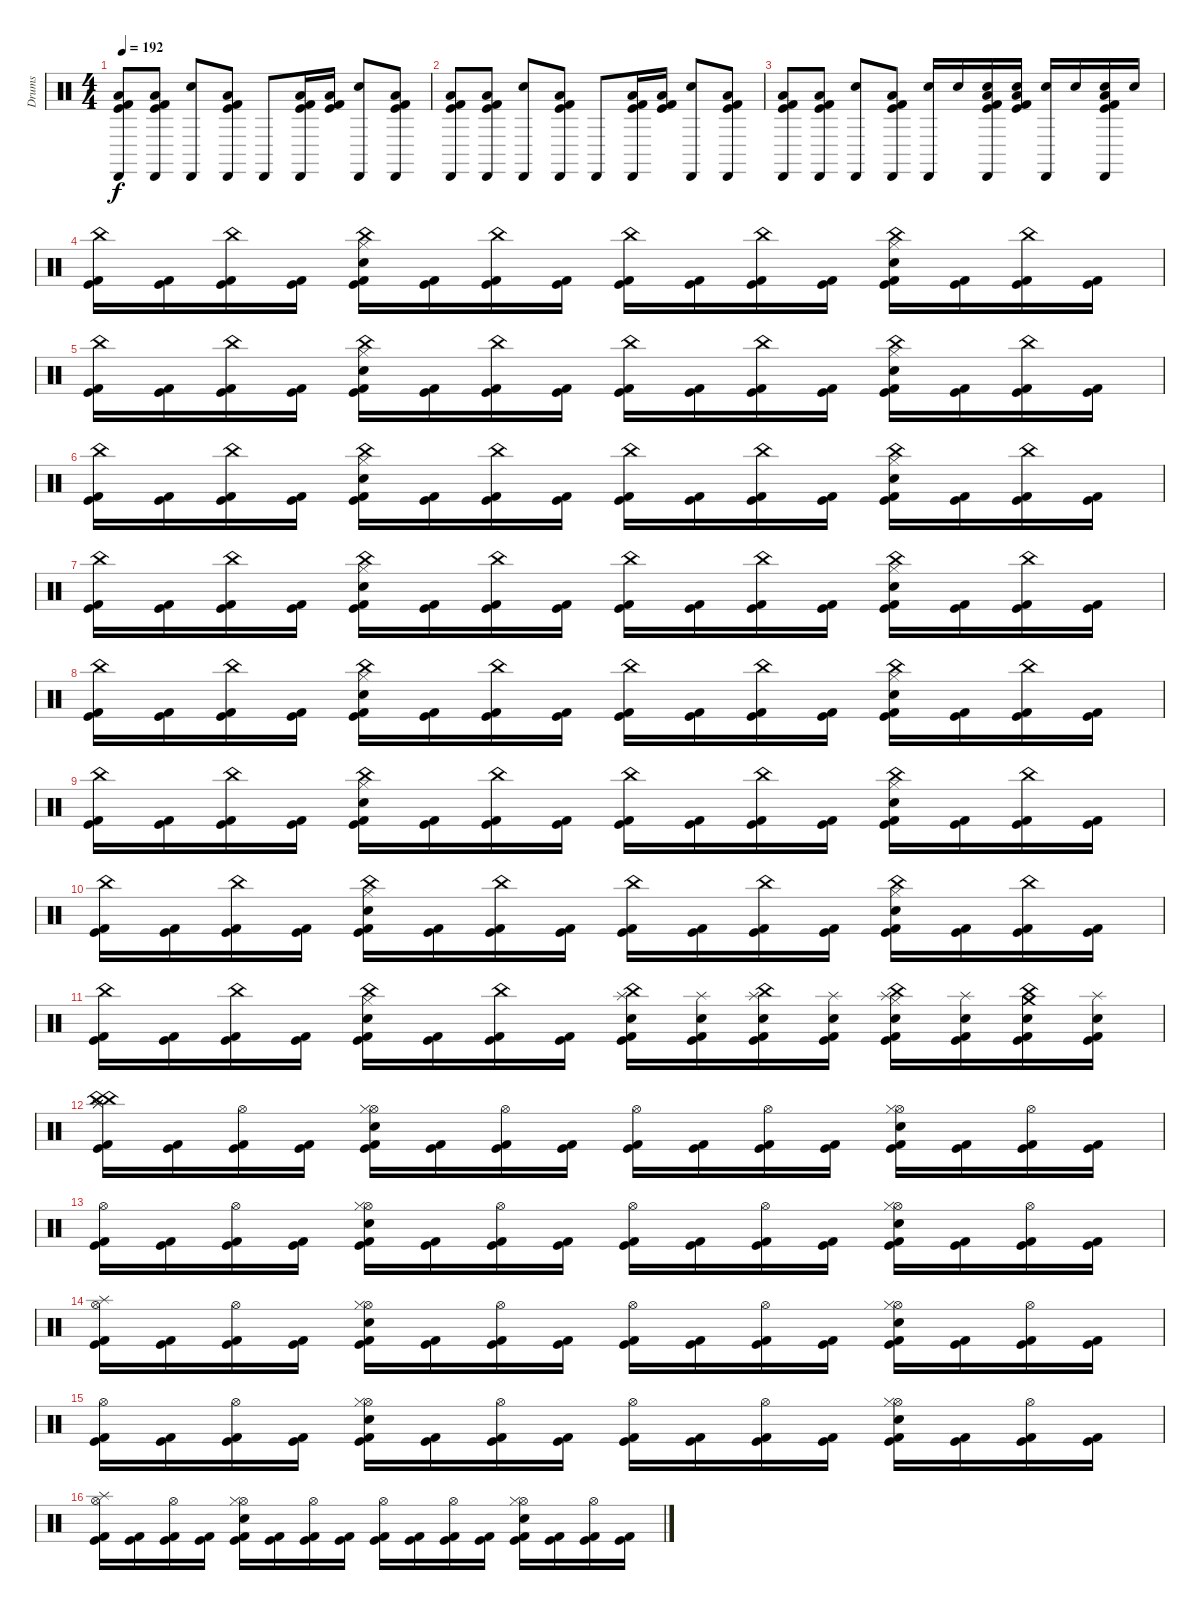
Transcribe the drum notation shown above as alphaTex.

\track ("Drums" "Drums") {instrument percussion}
\staff {score}
\articulation defaults
\ts (4 4)
\tempo 192
\clef neutral
\ks c
("Kick (hit)" "Kick (hit) 2" "Low Tom (hit)" "Cabasa (hit)").8{dy f} ("Kick (hit)" "Kick (hit) 2" "Low Tom (hit)" "Cabasa (hit)").8 ("Electric Snare (hit)" "Cabasa (hit)").8 ("Kick (hit)" "Kick (hit) 2" "Low Tom (hit)" "Cabasa (hit)").8 "Cabasa (hit)".8 ("Kick (hit)" "Kick (hit) 2" "Low Tom (hit)" "Cabasa (hit)").16 ("Kick (hit)" "Kick (hit) 2" "Low Tom (hit)").16 ("Electric Snare (hit)" "Cabasa (hit)").8 ("Kick (hit)" "Kick (hit) 2" "Low Tom (hit)" "Cabasa (hit)").8 |
("Kick (hit)" "Kick (hit) 2" "Low Tom (hit)" "Cabasa (hit)").8 ("Kick (hit)" "Low Tom (hit)" "Kick (hit) 2" "Cabasa (hit)").8 ("Electric Snare (hit)" "Cabasa (hit)").8 ("Kick (hit)" "Low Tom (hit)" "Kick (hit) 2" "Cabasa (hit)").8 "Cabasa (hit)".8 ("Kick (hit)" "Kick (hit) 2" "Low Tom (hit)" "Cabasa (hit)").16 ("Kick (hit)" "Kick (hit) 2" "Low Tom (hit)").16 ("Electric Snare (hit)" "Cabasa (hit)").8 ("Kick (hit)" "Kick (hit) 2" "Low Tom (hit)" "Cabasa (hit)").8 |
("Kick (hit)" "Kick (hit) 2" "Low Tom (hit)" "Cabasa (hit)").8 ("Kick (hit)" "Kick (hit) 2" "Low Tom (hit)" "Cabasa (hit)").8 ("Electric Snare (hit)" "Cabasa (hit)").8 ("Kick (hit)" "Kick (hit) 2" "Low Tom (hit)" "Cabasa (hit)").8 ("Electric Snare (hit)" "Cabasa (hit)").16 "Electric Snare (hit)".16 ("Electric Snare (hit)" "Kick (hit)" "Kick (hit) 2" "Low Tom (hit)" "Cabasa (hit)").16 ("Electric Snare (hit)" "Kick (hit)" "Kick (hit) 2" "Low Tom (hit)").16 ("Electric Snare (hit)" "Cabasa (hit)").16 "Electric Snare (hit)".16 ("Electric Snare (hit)" "Kick (hit)" "Kick (hit) 2" "Low Tom (hit)" "Cabasa (hit)").16 "Electric Snare (hit)".16 |
("China (hit)" "Kick (hit)" "Kick (hit) 2").16 ("Kick (hit)" "Kick (hit) 2").16 ("China (hit)" "Kick (hit)" "Kick (hit) 2").16 ("Kick (hit)" "Kick (hit) 2").16 ("Hi-Hat (closed)" "China (hit)" "Electric Snare (hit)" "Kick (hit)" "Kick (hit) 2").16 ("Kick (hit)" "Kick (hit) 2").16 ("China (hit)" "Kick (hit)" "Kick (hit) 2").16 ("Kick (hit)" "Kick (hit) 2").16 ("China (hit)" "Kick (hit)" "Kick (hit) 2").16 ("Kick (hit)" "Kick (hit) 2").16 ("China (hit)" "Kick (hit)" "Kick (hit) 2").16 ("Kick (hit)" "Kick (hit) 2").16 ("Hi-Hat (closed)" "China (hit)" "Electric Snare (hit)" "Kick (hit)" "Kick (hit) 2").16 ("Kick (hit)" "Kick (hit) 2").16 ("China (hit)" "Kick (hit)" "Kick (hit) 2").16 ("Kick (hit)" "Kick (hit) 2").16 |
("China (hit)" "Kick (hit)" "Kick (hit) 2").16 ("Kick (hit)" "Kick (hit) 2").16 ("China (hit)" "Kick (hit)" "Kick (hit) 2").16 ("Kick (hit)" "Kick (hit) 2").16 ("Hi-Hat (closed)" "China (hit)" "Electric Snare (hit)" "Kick (hit)" "Kick (hit) 2").16 ("Kick (hit)" "Kick (hit) 2").16 ("China (hit)" "Kick (hit)" "Kick (hit) 2").16 ("Kick (hit)" "Kick (hit) 2").16 ("China (hit)" "Kick (hit)" "Kick (hit) 2").16 ("Kick (hit)" "Kick (hit) 2").16 ("China (hit)" "Kick (hit)" "Kick (hit) 2").16 ("Kick (hit)" "Kick (hit) 2").16 ("Hi-Hat (closed)" "China (hit)" "Electric Snare (hit)" "Kick (hit)" "Kick (hit) 2").16 ("Kick (hit)" "Kick (hit) 2").16 ("China (hit)" "Kick (hit)" "Kick (hit) 2").16 ("Kick (hit)" "Kick (hit) 2").16 |
("China (hit)" "Kick (hit)" "Kick (hit) 2").16 ("Kick (hit)" "Kick (hit) 2").16 ("China (hit)" "Kick (hit)" "Kick (hit) 2").16 ("Kick (hit)" "Kick (hit) 2").16 ("Hi-Hat (closed)" "China (hit)" "Electric Snare (hit)" "Kick (hit)" "Kick (hit) 2").16 ("Kick (hit)" "Kick (hit) 2").16 ("China (hit)" "Kick (hit)" "Kick (hit) 2").16 ("Kick (hit)" "Kick (hit) 2").16 ("China (hit)" "Kick (hit)" "Kick (hit) 2").16 ("Kick (hit)" "Kick (hit) 2").16 ("China (hit)" "Kick (hit)" "Kick (hit) 2").16 ("Kick (hit)" "Kick (hit) 2").16 ("Hi-Hat (closed)" "China (hit)" "Electric Snare (hit)" "Kick (hit)" "Kick (hit) 2").16 ("Kick (hit)" "Kick (hit) 2").16 ("China (hit)" "Kick (hit)" "Kick (hit) 2").16 ("Kick (hit)" "Kick (hit) 2").16 |
("China (hit)" "Kick (hit)" "Kick (hit) 2").16 ("Kick (hit)" "Kick (hit) 2").16 ("China (hit)" "Kick (hit)" "Kick (hit) 2").16 ("Kick (hit)" "Kick (hit) 2").16 ("Hi-Hat (closed)" "China (hit)" "Electric Snare (hit)" "Kick (hit)" "Kick (hit) 2").16 ("Kick (hit)" "Kick (hit) 2").16 ("China (hit)" "Kick (hit)" "Kick (hit) 2").16 ("Kick (hit)" "Kick (hit) 2").16 ("China (hit)" "Kick (hit)" "Kick (hit) 2").16 ("Kick (hit)" "Kick (hit) 2").16 ("China (hit)" "Kick (hit)" "Kick (hit) 2").16 ("Kick (hit)" "Kick (hit) 2").16 ("Hi-Hat (closed)" "China (hit)" "Electric Snare (hit)" "Kick (hit)" "Kick (hit) 2").16 ("Kick (hit)" "Kick (hit) 2").16 ("China (hit)" "Kick (hit)" "Kick (hit) 2").16 ("Kick (hit)" "Kick (hit) 2").16 |
("China (hit)" "Kick (hit)" "Kick (hit) 2").16 ("Kick (hit)" "Kick (hit) 2").16 ("China (hit)" "Kick (hit)" "Kick (hit) 2").16 ("Kick (hit)" "Kick (hit) 2").16 ("Hi-Hat (closed)" "China (hit)" "Electric Snare (hit)" "Kick (hit)" "Kick (hit) 2").16 ("Kick (hit)" "Kick (hit) 2").16 ("China (hit)" "Kick (hit)" "Kick (hit) 2").16 ("Kick (hit)" "Kick (hit) 2").16 ("China (hit)" "Kick (hit)" "Kick (hit) 2").16 ("Kick (hit)" "Kick (hit) 2").16 ("China (hit)" "Kick (hit)" "Kick (hit) 2").16 ("Kick (hit)" "Kick (hit) 2").16 ("Hi-Hat (closed)" "China (hit)" "Electric Snare (hit)" "Kick (hit)" "Kick (hit) 2").16 ("Kick (hit)" "Kick (hit) 2").16 ("China (hit)" "Kick (hit)" "Kick (hit) 2").16 ("Kick (hit)" "Kick (hit) 2").16 |
("China (hit)" "Kick (hit)" "Kick (hit) 2").16 ("Kick (hit)" "Kick (hit) 2").16 ("China (hit)" "Kick (hit)" "Kick (hit) 2").16 ("Kick (hit)" "Kick (hit) 2").16 ("Hi-Hat (closed)" "China (hit)" "Electric Snare (hit)" "Kick (hit)" "Kick (hit) 2").16 ("Kick (hit)" "Kick (hit) 2").16 ("China (hit)" "Kick (hit)" "Kick (hit) 2").16 ("Kick (hit)" "Kick (hit) 2").16 ("China (hit)" "Kick (hit)" "Kick (hit) 2").16 ("Kick (hit)" "Kick (hit) 2").16 ("China (hit)" "Kick (hit)" "Kick (hit) 2").16 ("Kick (hit)" "Kick (hit) 2").16 ("Hi-Hat (closed)" "China (hit)" "Electric Snare (hit)" "Kick (hit)" "Kick (hit) 2").16 ("Kick (hit)" "Kick (hit) 2").16 ("China (hit)" "Kick (hit)" "Kick (hit) 2").16 ("Kick (hit)" "Kick (hit) 2").16 |
("China (hit)" "Kick (hit)" "Kick (hit) 2").16 ("Kick (hit)" "Kick (hit) 2").16 ("China (hit)" "Kick (hit)" "Kick (hit) 2").16 ("Kick (hit)" "Kick (hit) 2").16 ("Hi-Hat (closed)" "China (hit)" "Electric Snare (hit)" "Kick (hit)" "Kick (hit) 2").16 ("Kick (hit)" "Kick (hit) 2").16 ("China (hit)" "Kick (hit)" "Kick (hit) 2").16 ("Kick (hit)" "Kick (hit) 2").16 ("China (hit)" "Kick (hit)" "Kick (hit) 2").16 ("Kick (hit)" "Kick (hit) 2").16 ("China (hit)" "Kick (hit)" "Kick (hit) 2").16 ("Kick (hit)" "Kick (hit) 2").16 ("Hi-Hat (closed)" "China (hit)" "Electric Snare (hit)" "Kick (hit)" "Kick (hit) 2").16 ("Kick (hit)" "Kick (hit) 2").16 ("China (hit)" "Kick (hit)" "Kick (hit) 2").16 ("Kick (hit)" "Kick (hit) 2").16 |
("China (hit)" "Kick (hit)" "Kick (hit) 2").16 ("Kick (hit)" "Kick (hit) 2").16 ("China (hit)" "Kick (hit)" "Kick (hit) 2").16 ("Kick (hit)" "Kick (hit) 2").16 ("Hi-Hat (closed)" "China (hit)" "Electric Snare (hit)" "Kick (hit)" "Kick (hit) 2").16 ("Kick (hit)" "Kick (hit) 2").16 ("China (hit)" "Kick (hit)" "Kick (hit) 2").16 ("Kick (hit)" "Kick (hit) 2").16 ("Splash (hit)" "Electric Snare (hit)" "China (hit)" "Kick (hit)" "Kick (hit) 2").16 ("Splash (hit)" "Electric Snare (hit)" "Kick (hit)" "Kick (hit) 2").16 ("Splash (hit)" "Electric Snare (hit)" "China (hit)" "Kick (hit)" "Kick (hit) 2").16 ("Splash (hit)" "Electric Snare (hit)" "Kick (hit)" "Kick (hit) 2").16 ("Splash (hit)" "Hi-Hat (closed)" "China (hit)" "Electric Snare (hit)" "Kick (hit)" "Kick (hit) 2").16 ("Splash (hit)" "Electric Snare (hit)" "Kick (hit)" "Kick (hit) 2").16 ("Crash medium (hit)" "Electric Snare (hit)" "China (hit)" "Kick (hit)" "Kick (hit) 2").16 ("Splash (hit)" "Electric Snare (hit)" "Kick (hit)" "Kick (hit) 2").16 |
("China (hit)" "Splash (hit)" "Splash (hit)" "China (hit)" "Kick (hit)" "Kick (hit) 2").16{volume 16 balance 8} ("Kick (hit)" "Kick (hit) 2").16 ("Hi-Hat (open)" "Kick (hit)" "Kick (hit) 2").16 ("Kick (hit)" "Kick (hit) 2").16 ("Hi-Hat (open)" "Hi-Hat (closed)" "Electric Snare (hit)" "Kick (hit)" "Kick (hit) 2").16 ("Kick (hit)" "Kick (hit) 2").16 ("Hi-Hat (open)" "Kick (hit)" "Kick (hit) 2").16 ("Kick (hit)" "Kick (hit) 2").16 ("Hi-Hat (open)" "Kick (hit)" "Kick (hit) 2").16 ("Kick (hit)" "Kick (hit) 2").16 ("Hi-Hat (open)" "Kick (hit)" "Kick (hit) 2").16 ("Kick (hit)" "Kick (hit) 2").16 ("Hi-Hat (open)" "Hi-Hat (closed)" "Electric Snare (hit)" "Kick (hit)" "Kick (hit) 2").16 ("Kick (hit)" "Kick (hit) 2").16 ("Hi-Hat (open)" "Kick (hit)" "Kick (hit) 2").16 ("Kick (hit)" "Kick (hit) 2").16 |
("Hi-Hat (open)" "Kick (hit)" "Kick (hit) 2").16 ("Kick (hit)" "Kick (hit) 2").16 ("Hi-Hat (open)" "Kick (hit)" "Kick (hit) 2").16 ("Kick (hit)" "Kick (hit) 2").16 ("Hi-Hat (open)" "Hi-Hat (closed)" "Electric Snare (hit)" "Kick (hit)" "Kick (hit) 2").16 ("Kick (hit)" "Kick (hit) 2").16 ("Hi-Hat (open)" "Kick (hit)" "Kick (hit) 2").16 ("Kick (hit)" "Kick (hit) 2").16 ("Hi-Hat (open)" "Kick (hit)" "Kick (hit) 2").16 ("Kick (hit)" "Kick (hit) 2").16 ("Hi-Hat (open)" "Kick (hit)" "Kick (hit) 2").16 ("Kick (hit)" "Kick (hit) 2").16 ("Hi-Hat (open)" "Hi-Hat (closed)" "Electric Snare (hit)" "Kick (hit)" "Kick (hit) 2").16 ("Kick (hit)" "Kick (hit) 2").16 ("Hi-Hat (open)" "Kick (hit)" "Kick (hit) 2").16 ("Kick (hit)" "Kick (hit) 2").16 |
("Splash (hit)" "Hi-Hat (open)" "Kick (hit)" "Kick (hit) 2").16 ("Kick (hit)" "Kick (hit) 2").16 ("Hi-Hat (open)" "Kick (hit)" "Kick (hit) 2").16 ("Kick (hit)" "Kick (hit) 2").16 ("Hi-Hat (open)" "Hi-Hat (closed)" "Electric Snare (hit)" "Kick (hit)" "Kick (hit) 2").16 ("Kick (hit)" "Kick (hit) 2").16 ("Hi-Hat (open)" "Kick (hit)" "Kick (hit) 2").16 ("Kick (hit)" "Kick (hit) 2").16 ("Hi-Hat (open)" "Kick (hit)" "Kick (hit) 2").16 ("Kick (hit)" "Kick (hit) 2").16 ("Hi-Hat (open)" "Kick (hit)" "Kick (hit) 2").16 ("Kick (hit)" "Kick (hit) 2").16 ("Hi-Hat (open)" "Hi-Hat (closed)" "Electric Snare (hit)" "Kick (hit)" "Kick (hit) 2").16 ("Kick (hit)" "Kick (hit) 2").16 ("Hi-Hat (open)" "Kick (hit)" "Kick (hit) 2").16 ("Kick (hit)" "Kick (hit) 2").16 |
("Hi-Hat (open)" "Kick (hit)" "Kick (hit) 2").16 ("Kick (hit)" "Kick (hit) 2").16 ("Hi-Hat (open)" "Kick (hit)" "Kick (hit) 2").16 ("Kick (hit)" "Kick (hit) 2").16 ("Hi-Hat (open)" "Hi-Hat (closed)" "Electric Snare (hit)" "Kick (hit)" "Kick (hit) 2").16 ("Kick (hit)" "Kick (hit) 2").16 ("Hi-Hat (open)" "Kick (hit)" "Kick (hit) 2").16 ("Kick (hit)" "Kick (hit) 2").16 ("Hi-Hat (open)" "Kick (hit)" "Kick (hit) 2").16 ("Kick (hit)" "Kick (hit) 2").16 ("Hi-Hat (open)" "Kick (hit)" "Kick (hit) 2").16 ("Kick (hit)" "Kick (hit) 2").16 ("Hi-Hat (open)" "Hi-Hat (closed)" "Electric Snare (hit)" "Kick (hit)" "Kick (hit) 2").16 ("Kick (hit)" "Kick (hit) 2").16 ("Hi-Hat (open)" "Kick (hit)" "Kick (hit) 2").16 ("Kick (hit)" "Kick (hit) 2").16 |
("Hi-Hat (open)" "Splash (hit)" "Kick (hit)" "Kick (hit) 2").16 ("Kick (hit)" "Kick (hit) 2").16 ("Hi-Hat (open)" "Kick (hit)" "Kick (hit) 2").16 ("Kick (hit)" "Kick (hit) 2").16 ("Hi-Hat (open)" "Hi-Hat (closed)" "Electric Snare (hit)" "Kick (hit)" "Kick (hit) 2").16 ("Kick (hit)" "Kick (hit) 2").16 ("Hi-Hat (open)" "Kick (hit)" "Kick (hit) 2").16 ("Kick (hit)" "Kick (hit) 2").16 ("Hi-Hat (open)" "Kick (hit)" "Kick (hit) 2").16 ("Kick (hit)" "Kick (hit) 2").16 ("Hi-Hat (open)" "Kick (hit)" "Kick (hit) 2").16 ("Kick (hit)" "Kick (hit) 2").16 ("Hi-Hat (open)" "Hi-Hat (closed)" "Electric Snare (hit)" "Kick (hit)" "Kick (hit) 2").16 ("Kick (hit)" "Kick (hit) 2").16 ("Hi-Hat (open)" "Kick (hit)" "Kick (hit) 2").16 ("Kick (hit)" "Kick (hit) 2").16
